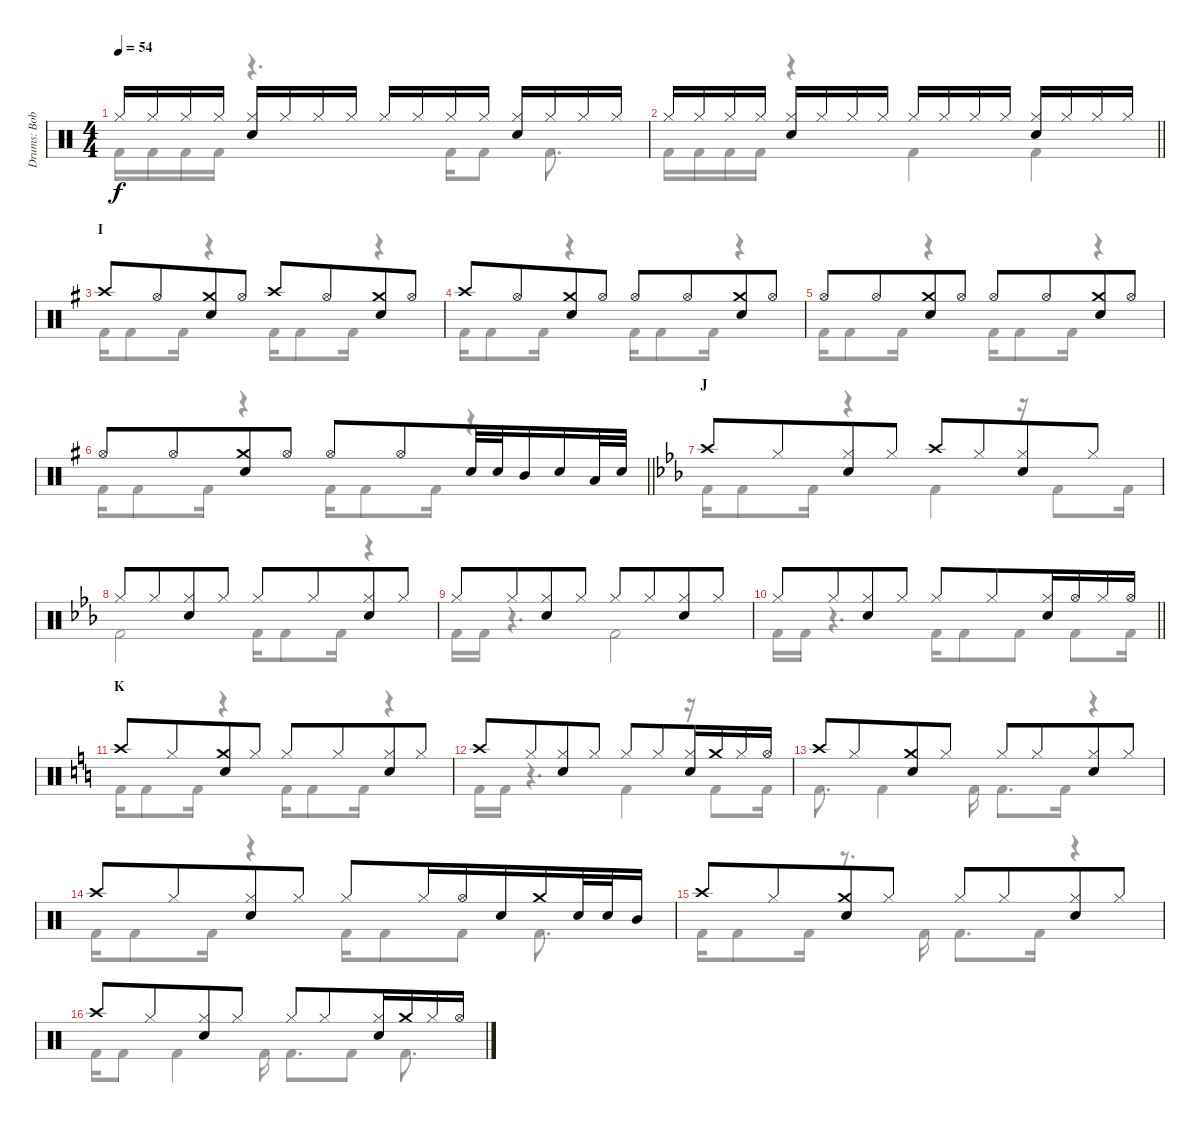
\track ("Drums: Bobby" "Drums: Bob") {instrument percussion}
\staff {score}
\articulation defaults
\voice
\ts (4 4)
\tempo 54
\clef neutral
\ks c "Hi-Hat (closed)".16{dy f} "Hi-Hat (closed)".16 "Hi-Hat (closed)".16 "Hi-Hat (closed)".16
("Hi-Hat (closed)" "Snare (hit) 2").16 "Hi-Hat (closed)".16 "Hi-Hat (closed)".16 "Hi-Hat (closed)".16 "Hi-Hat (closed)".16 "Hi-Hat (closed)".16 "Hi-Hat (closed)".16 "Hi-Hat (closed)".16 ("Hi-Hat (closed)" "Snare (hit) 2").16 "Hi-Hat (closed)".16 "Hi-Hat (closed)".16 "Hi-Hat (closed)".16 |
\barLineRight lightlight "Hi-Hat (closed)".16 "Hi-Hat (closed)".16 "Hi-Hat (closed)".16 "Hi-Hat (closed)".16
("Hi-Hat (closed)" "Snare (hit) 2").16 "Hi-Hat (closed)".16 "Hi-Hat (closed)".16 "Hi-Hat (closed)".16 "Hi-Hat (closed)".16 "Hi-Hat (closed)".16 "Hi-Hat (closed)".16 "Hi-Hat (closed)".16 ("Hi-Hat (closed)" "Snare (hit) 2").16 "Hi-Hat (closed)".16 "Hi-Hat (closed)".16 "Hi-Hat (closed)".16 |
\section ("" "I")
\ks g "Crash high (hit)".8 "Hi-Hat (open)".8{beam merge}
("Crash medium (hit)" "Snare (hit) 2").8 "Hi-Hat (open)".8 "Crash high (hit)".8 "Hi-Hat (open)".8{beam merge} ("Crash medium (hit)" "Snare (hit) 2").8 "Hi-Hat (open)".8 |
"Crash high (hit)".8 "Hi-Hat (open)".8{beam merge} ("Crash medium (hit)" "Snare (hit) 2").8 "Hi-Hat (open)".8 "Hi-Hat (open)".8 "Hi-Hat (open)".8{beam merge} ("Crash medium (hit)" "Snare (hit) 2").8 "Hi-Hat (open)".8 |
"Hi-Hat (open)".8 "Hi-Hat (open)".8{beam merge} ("Crash medium (hit)" "Snare (hit) 2").8 "Hi-Hat (open)".8 "Hi-Hat (open)".8 "Hi-Hat (open)".8{beam merge} ("Crash medium (hit)" "Snare (hit) 2").8 "Hi-Hat (open)".8 |
\barLineRight lightlight "Hi-Hat (open)".8 "Hi-Hat (open)".8{beam merge}
("Crash medium (hit)" "Snare (hit) 2").8 "Hi-Hat (open)".8 "Hi-Hat (open)".8 "Hi-Hat (open)".8{beam merge} "Snare (hit) 2".32 "Snare (hit) 2".32 "Mid Tom (hit)".16 "Electric Snare (hit)".16 "Low Tom (hit)".32 "Electric Snare (hit)".32 |
\section ("" "J")
\ks eb "Crash high (hit)".8 "Hi-Hat (closed)".8{beam merge}
("Hi-Hat (closed)" "Snare (hit) 2").8 "Hi-Hat (closed)".8 "Crash high (hit)".8 "Hi-Hat (closed)".8{beam merge} ("Hi-Hat (closed)" "Snare (hit) 2").8 "Hi-Hat (closed)".8 |
"Hi-Hat (closed)".8 "Hi-Hat (closed)".8{beam merge} ("Hi-Hat (closed)" "Snare (hit) 2").8 "Hi-Hat (closed)".8 "Hi-Hat (closed)".8 "Hi-Hat (closed)".8{beam merge} ("Hi-Hat (closed)" "Snare (hit) 2").8 "Hi-Hat (closed)".8 |
"Hi-Hat (closed)".8 "Hi-Hat (closed)".8{beam merge} ("Hi-Hat (closed)" "Snare (hit) 2").8 "Hi-Hat (closed)".8 "Hi-Hat (closed)".8 "Hi-Hat (closed)".8{beam merge} ("Hi-Hat (closed)" "Snare (hit) 2").8 "Hi-Hat (closed)".8 |
\barLineRight lightlight "Hi-Hat (closed)".8 "Hi-Hat (closed)".8{beam merge}
("Hi-Hat (closed)" "Snare (hit) 2").8 "Hi-Hat (closed)".8 "Hi-Hat (closed)".8 "Hi-Hat (closed)".8{beam merge} ("Hi-Hat (closed)" "Snare (hit) 2").16 "Hi-Hat (open)".16 "Hi-Hat (closed)".16 "Hi-Hat (open)".16 |
\section ("" "K")
\ks c "Crash high (hit)".8 "Hi-Hat (closed)".8{beam merge}
("Crash medium (hit)" "Snare (hit) 2").8 "Hi-Hat (closed)".8 "Hi-Hat (closed)".8 "Hi-Hat (closed)".8{beam merge} ("Hi-Hat (closed)" "Snare (hit) 2").8 "Hi-Hat (closed)".8 |
"Crash high (hit)".8 "Hi-Hat (closed)".8{beam merge} ("Hi-Hat (closed)" "Snare (hit) 2").8 "Hi-Hat (closed)".8 "Hi-Hat (closed)".8 "Hi-Hat (closed)".8{beam merge} ("Hi-Hat (closed)" "Snare (hit) 2").16 "Crash medium (hit)".16 "Hi-Hat (closed)".16 "Hi-Hat (open)".16 |
"Crash high (hit)".8 "Hi-Hat (closed)".8{beam merge} ("Crash medium (hit)" "Snare (hit) 2").8 "Hi-Hat (closed)".8 "Hi-Hat (closed)".8 "Hi-Hat (closed)".8{beam merge} ("Hi-Hat (closed)" "Snare (hit) 2").8 "Hi-Hat (closed)".8 |
"Crash high (hit)".8 "Hi-Hat (closed)".8{beam merge} ("Hi-Hat (closed)" "Snare (hit) 2").8 "Hi-Hat (closed)".8 "Hi-Hat (closed)".8 "Hi-Hat (closed)".16 "Hi-Hat (open)".16{beam merge} "Snare (hit) 2".16 "Crash medium (hit)".16 "Snare (hit) 2".32 "Snare (hit) 2".32 "Mid Tom (hit)".16 |
"Crash high (hit)".8 "Hi-Hat (closed)".8{beam merge} ("Crash medium (hit)" "Snare (hit) 2").8 "Hi-Hat (closed)".8 "Hi-Hat (closed)".8 "Hi-Hat (closed)".8{beam merge} ("Hi-Hat (closed)" "Snare (hit) 2").8 "Hi-Hat (closed)".8 |
"Crash high (hit)".8 "Hi-Hat (closed)".8{beam merge} ("Hi-Hat (closed)" "Snare (hit) 2").8 "Hi-Hat (closed)".8 "Hi-Hat (closed)".8 "Hi-Hat (closed)".8{beam merge} ("Hi-Hat (closed)" "Snare (hit) 2").16 "Crash medium (hit)".16 "Hi-Hat (closed)".16 "Hi-Hat (open)".16
\voice
\clef neutral
\ottava regular
\simile none
\ks c "Kick (hit) 2".16{dy f} "Kick (hit) 2".16 "Kick (hit) 2".16 "Kick (hit) 2".16
r.4{d} "Kick (hit) 2".16 "Kick (hit) 2".8 "Kick (hit) 2".8{d} |
\barLineRight lightlight "Kick (hit) 2".16 "Kick (hit) 2".16 "Kick (hit) 2".16 "Kick (hit) 2".16
r.4 "Kick (hit) 2".4 "Kick (hit) 2".4 |
\ks g "Kick (hit) 2".16 "Kick (hit) 2".8 "Kick (hit) 2".16
r.4 "Kick (hit) 2".16 "Kick (hit) 2".8 "Kick (hit) 2".16 r.4 |
"Kick (hit) 2".16 "Kick (hit) 2".8 "Kick (hit) 2".16 r.4 "Kick (hit) 2".16 "Kick (hit) 2".8 "Kick (hit) 2".16 r.4 |
"Kick (hit) 2".16 "Kick (hit) 2".8 "Kick (hit) 2".16 r.4 "Kick (hit) 2".16 "Kick (hit) 2".8 "Kick (hit) 2".16 r.4 |
\barLineRight lightlight "Kick (hit) 2".16 "Kick (hit) 2".8 "Kick (hit) 2".16
r.4 "Kick (hit) 2".16 "Kick (hit) 2".8 "Kick (hit) 2".16 r.4 |
\ks eb "Kick (hit) 2".16 "Kick (hit) 2".8 "Kick (hit) 2".16
r.4 "Kick (hit) 2".4 r.16 "Kick (hit) 2".8 "Kick (hit) 2".16 |
"Kick (hit) 2".2 "Kick (hit) 2".16 "Kick (hit) 2".8 "Kick (hit) 2".16 r.4 |
"Kick (hit) 2".16 "Kick (hit) 2".16 r.4{d} "Kick (hit) 2".2 |
\barLineRight lightlight "Kick (hit) 2".16 "Kick (hit) 2".16
r.4{d} "Kick (hit) 2".16 "Kick (hit) 2".8 "Kick (hit) 2".8 "Kick (hit) 2".8 "Kick (hit) 2".16 |
\ks c "Kick (hit) 2".16 "Kick (hit) 2".8 "Kick (hit) 2".16
r.4 "Kick (hit) 2".16 "Kick (hit) 2".8 "Kick (hit) 2".16 r.4 |
"Kick (hit) 2".16 "Kick (hit) 2".16 r.4{d} "Kick (hit) 2".4 r.16 "Kick (hit) 2".8 "Kick (hit) 2".16 |
"Kick (hit) 2".8{d} "Kick (hit) 2".4 "Kick (hit) 2".16 "Kick (hit) 2".8{d} "Kick (hit) 2".16 r.4 |
"Kick (hit) 2".16 "Kick (hit) 2".8 "Kick (hit) 2".16 r.4 "Kick (hit) 2".16 "Kick (hit) 2".8 "Kick (hit) 2".8 "Kick (hit) 2".8{d} |
"Kick (hit) 2".16 "Kick (hit) 2".8 "Kick (hit) 2".16 r.8{d} "Kick (hit) 2".16 "Kick (hit) 2".8{d} "Kick (hit) 2".16 r.4 |
"Kick (hit) 2".16 "Kick (hit) 2".8 "Kick (hit) 2".4 "Kick (hit) 2".16 "Kick (hit) 2".8{d} "Kick (hit) 2".8 "Kick (hit) 2".8{d}
